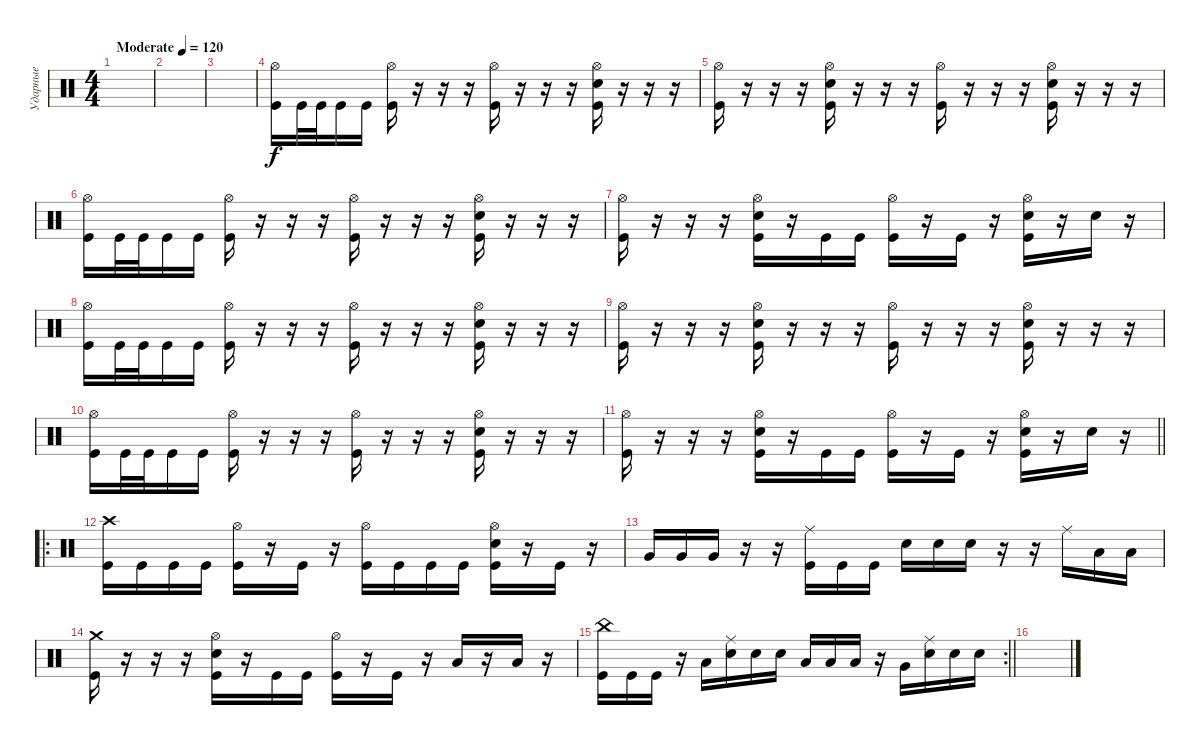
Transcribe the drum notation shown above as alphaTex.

\track ("Ударные" "Ударные") {instrument percussion}
\staff {score}
\articulation defaults
\ts (4 4)
\tempo (120 "Moderate")
\clef neutral
\ks c
|
|
|
("Hi-Hat (open)" "Kick (hit)").16 "Kick (hit)".32 "Kick (hit)".32 "Kick (hit)".16 "Kick (hit)".16 ("Hi-Hat (open)" "Kick (hit)").16 r.16 r.16 r.16 ("Hi-Hat (open)" "Kick (hit)").16 r.16 r.16 r.16 ("Hi-Hat (open)" "Electric Snare (hit)" "Kick (hit)").16 r.16 r.16 r.16 |
("Hi-Hat (open)" "Kick (hit)").16 r.16 r.16 r.16 ("Hi-Hat (open)" "Electric Snare (hit)" "Kick (hit)").16 r.16 r.16 r.16 ("Hi-Hat (open)" "Kick (hit)").16 r.16 r.16 r.16 ("Hi-Hat (open)" "Electric Snare (hit)" "Kick (hit)").16 r.16 r.16 r.16 |
("Hi-Hat (open)" "Kick (hit)").16 "Kick (hit)".32 "Kick (hit)".32 "Kick (hit)".16 "Kick (hit)".16 ("Hi-Hat (open)" "Kick (hit)").16 r.16 r.16 r.16 ("Hi-Hat (open)" "Kick (hit)").16 r.16 r.16 r.16 ("Hi-Hat (open)" "Electric Snare (hit)" "Kick (hit)").16 r.16 r.16 r.16 |
("Hi-Hat (open)" "Kick (hit)").16 r.16 r.16 r.16 ("Hi-Hat (open)" "Electric Snare (hit)" "Kick (hit)").16 r.16 "Kick (hit)".16 "Kick (hit)".16 ("Hi-Hat (open)" "Kick (hit)").16 r.16 "Kick (hit)".16 r.16 ("Hi-Hat (open)" "Electric Snare (hit)" "Kick (hit)").16 r.16 "Electric Snare (hit)".16 r.16 |
("Hi-Hat (open)" "Kick (hit)").16 "Kick (hit)".32 "Kick (hit)".32 "Kick (hit)".16 "Kick (hit)".16 ("Hi-Hat (open)" "Kick (hit)").16 r.16 r.16 r.16 ("Hi-Hat (open)" "Kick (hit)").16 r.16 r.16 r.16 ("Hi-Hat (open)" "Electric Snare (hit)" "Kick (hit)").16 r.16 r.16 r.16 |
("Hi-Hat (open)" "Kick (hit)").16 r.16 r.16 r.16 ("Hi-Hat (open)" "Electric Snare (hit)" "Kick (hit)").16 r.16 r.16 r.16 ("Hi-Hat (open)" "Kick (hit)").16 r.16 r.16 r.16 ("Hi-Hat (open)" "Electric Snare (hit)" "Kick (hit)").16 r.16 r.16 r.16 |
("Hi-Hat (open)" "Kick (hit)").16 "Kick (hit)".32 "Kick (hit)".32 "Kick (hit)".16 "Kick (hit)".16 ("Hi-Hat (open)" "Kick (hit)").16 r.16 r.16 r.16 ("Hi-Hat (open)" "Kick (hit)").16 r.16 r.16 r.16 ("Hi-Hat (open)" "Electric Snare (hit)" "Kick (hit)").16 r.16 r.16 r.16 |
\barLineRight lightlight
("Hi-Hat (open)" "Kick (hit)").16 r.16 r.16 r.16 ("Hi-Hat (open)" "Electric Snare (hit)" "Kick (hit)").16 r.16 "Kick (hit)".16 "Kick (hit)".16 ("Hi-Hat (open)" "Kick (hit)").16 r.16 "Kick (hit)".16 r.16 ("Hi-Hat (open)" "Electric Snare (hit)" "Kick (hit)").16 r.16 "Electric Snare (hit)".16 r.16 |
\ro
\section ("" " ")
("Crash high (hit)" "Kick (hit)").16 "Kick (hit)".16 "Kick (hit)".16 "Kick (hit)".16 ("Hi-Hat (open)" "Kick (hit)").16 r.16 "Kick (hit)".16 r.16 ("Hi-Hat (open)" "Kick (hit)").16 "Kick (hit)".16 "Kick (hit)".16 "Kick (hit)".16 ("Hi-Hat (open)" "Electric Snare (hit)" "Kick (hit)").16 r.16 "Kick (hit)".16 r.16 |
"Very Low Tom (hit)".16 "Very Low Tom (hit)".16 "Very Low Tom (hit)".16 r.16 r.16 ("Ride (middle)" "Kick (hit)").16 "Kick (hit)".16 "Kick (hit)".16 "Electric Snare (hit)".16 "Electric Snare (hit)".16 "Electric Snare (hit)".16 r.16 r.16 "Ride (middle)".16 "Low Tom (hit)".16 "Low Tom (hit)".16 |
("Crash medium (hit)" "Kick (hit)").16 r.16 r.16 r.16 ("Hi-Hat (open)" "Electric Snare (hit)" "Kick (hit)").16 r.16 "Kick (hit)".16 "Kick (hit)".16 ("Hi-Hat (open)" "Kick (hit)").16 r.16 "Kick (hit)".16 r.16 "Low Tom (hit)".16 r.16 "Low Tom (hit)".16 r.16 |
\rc 2
\barLineRight lightlight
("China (hit)" "Kick (hit)").16 "Kick (hit)".16 "Kick (hit)".16 r.16 "Low Tom (hit)".16 ("Ride (middle)" "Electric Snare (hit)").16 "Electric Snare (hit)".16 "Electric Snare (hit)".16 "Low Floor Tom (hit)".16 "Low Floor Tom (hit)".16 "Low Floor Tom (hit)".16 r.16 "Very Low Tom (hit)".16 ("Ride (middle)" "Electric Snare (hit)").16 "Electric Snare (hit)".16 "Electric Snare (hit)".16 |
\section ("" " ")
